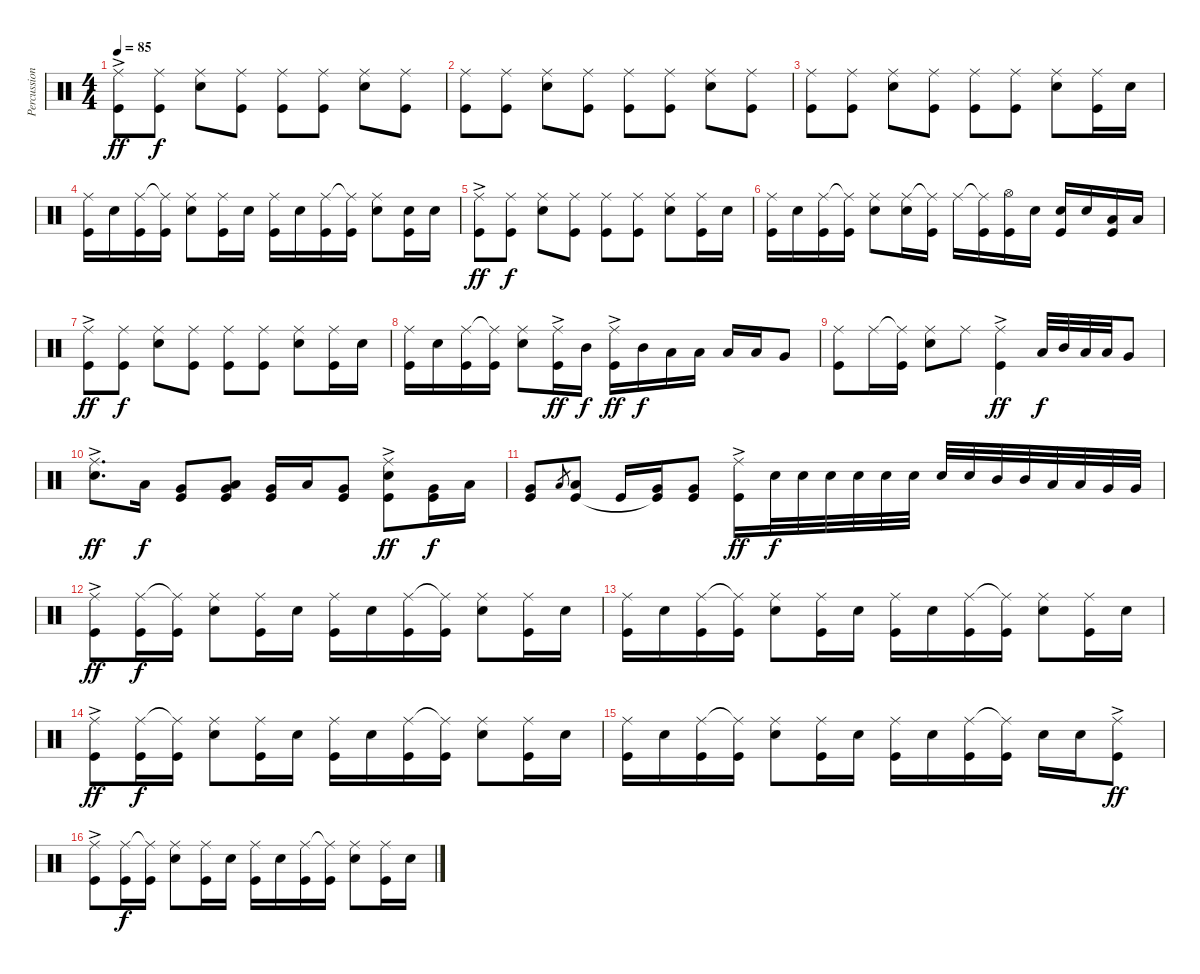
\track ("Percussion" "Percussion") {instrument percussion}
\staff {score}
\articulation defaults
\ts (4 4)
\tempo 85
\clef neutral
\ks c
("Ride (middle)"{ac} "Kick (hit)").8{dy ff} ("Ride (middle)" "Kick (hit)").8{dy f} ("Ride (middle)" "Snare (hit) 2").8 ("Ride (middle)" "Kick (hit)").8 ("Ride (middle)" "Kick (hit)").8 ("Ride (middle)" "Kick (hit)").8 ("Ride (middle)" "Snare (hit) 2").8 ("Ride (middle)" "Kick (hit)").8 |
("Ride (middle)" "Kick (hit)").8 ("Ride (middle)" "Kick (hit)").8 ("Ride (middle)" "Snare (hit) 2").8 ("Ride (middle)" "Kick (hit)").8 ("Ride (middle)" "Kick (hit)").8 ("Ride (middle)" "Kick (hit)").8 ("Ride (middle)" "Snare (hit) 2").8 ("Ride (middle)" "Kick (hit)").8 |
("Ride (middle)" "Kick (hit)").8 ("Ride (middle)" "Kick (hit)").8 ("Ride (middle)" "Snare (hit) 2").8 ("Ride (middle)" "Kick (hit)").8 ("Ride (middle)" "Kick (hit)").8 ("Ride (middle)" "Kick (hit)").8 ("Ride (middle)" "Snare (hit) 2").8 ("Ride (middle)" "Kick (hit)").16 "Snare (hit) 2".16 |
("Ride (middle)" "Kick (hit)").16 "Snare (hit) 2".16 ("Ride (middle)" "Kick (hit)").16 ("Ride (middle)"{t} "Kick (hit)").16 ("Ride (middle)" "Snare (hit) 2").8 ("Ride (middle)" "Kick (hit)").16 "Snare (hit) 2".16 ("Ride (middle)" "Kick (hit)").16 "Snare (hit) 2".16 ("Ride (middle)" "Kick (hit)").16 ("Ride (middle)"{t} "Kick (hit)").16 ("Ride (middle)" "Snare (hit) 2").8 ("Snare (hit) 2" "Kick (hit)").16 "Snare (hit) 2".16 |
("Ride (middle)"{ac} "Kick (hit)").8{dy ff} ("Ride (middle)" "Kick (hit)").8{dy f} ("Ride (middle)" "Snare (hit) 2").8 ("Ride (middle)" "Kick (hit)").8 ("Ride (middle)" "Kick (hit)").8 ("Ride (middle)" "Kick (hit)").8 ("Ride (middle)" "Snare (hit) 2").8 ("Ride (middle)" "Kick (hit)").16 "Snare (hit) 2".16 |
("Ride (middle)" "Kick (hit)").16 "Snare (hit) 2".16 ("Ride (middle)" "Kick (hit)").16 ("Ride (middle)"{t} "Kick (hit)").16 ("Ride (middle)" "Snare (hit) 2").8 ("Ride (middle)" "Snare (hit) 2").16 ("Ride (middle)"{t} "Kick (hit)").16 "Ride (middle)".16 ("Ride (middle)"{t} "Kick (hit)").16 ("Hi-Hat (open)" "Kick (hit)").16 "Snare (hit) 2".16 ("Snare (hit) 2" "Kick (hit)").16 "Snare (hit) 2".16 ("Low Tom (hit)" "Kick (hit)").16 "Low Tom (hit)".16 |
("Ride (middle)"{ac} "Kick (hit)").8{dy ff} ("Ride (middle)" "Kick (hit)").8{dy f} ("Ride (middle)" "Snare (hit) 2").8 ("Ride (middle)" "Kick (hit)").8 ("Ride (middle)" "Kick (hit)").8 ("Ride (middle)" "Kick (hit)").8 ("Ride (middle)" "Snare (hit) 2").8 ("Ride (middle)" "Kick (hit)").16 "Snare (hit) 2".16 |
("Ride (middle)" "Kick (hit)").16 "Snare (hit) 2".16 ("Ride (middle)" "Kick (hit)").16 ("Ride (middle)"{t} "Kick (hit)").16 ("Ride (middle)" "Snare (hit) 2").8 ("Ride (middle)"{ac} "Kick (hit)").16{dy ff} "Mid Tom (hit)".16{dy f} ("Ride (middle)"{ac} "Kick (hit)").16{dy ff} "Mid Tom (hit)".16{dy f} "Low Tom (hit)".16 "Low Tom (hit)".16 "Low Tom (hit)".16 "Low Tom (hit)".16 "Very Low Tom (hit)".8 |
("Ride (middle)" "Kick (hit)").8 "Ride (middle)".16 ("Ride (middle)"{t} "Kick (hit)").16 ("Ride (middle)" "Snare (hit) 2").8 "Ride (middle)".8 ("Ride (middle)"{ac} "Kick (hit)").4{dy ff} "Low Tom (hit)".32{dy f} "Mid Tom (hit)".32 "Low Tom (hit)".32 "Low Tom (hit)".32 "Very Low Tom (hit)".8 |
("Ride (middle)"{ac} "Snare (hit) 2").8{d dy ff} "Low Tom (hit)".16{dy f} ("Very Low Tom (hit)" "Kick (hit)").8 ("Very Low Tom (hit)" "Low Tom (hit)" "Kick (hit)").8 ("Very Low Tom (hit)" "Kick (hit)").16 "Low Tom (hit)".16 ("Very Low Tom (hit)" "Kick (hit)").8 ("Ride (middle)"{ac} "Snare (hit) 2" "Kick (hit)").8{dy ff} ("Very Low Tom (hit)" "Kick (hit)").16{dy f} "Low Tom (hit)".16 |
("Very Low Tom (hit)" "Kick (hit)").8 "Low Tom (hit)".8{gr} ("Low Tom (hit)" "Kick (hit)").8 "Kick (hit)".16 ("Very Low Tom (hit)" "Kick (hit)"{t}).16 ("Very Low Tom (hit)" "Kick (hit)").8 ("Ride (middle)"{ac} "Kick (hit)").16{dy ff} "Snare (hit) 2".32{dy f} "Snare (hit) 2".32 "Snare (hit) 2".32 "Snare (hit) 2".32 "Snare (hit) 2".32 "Snare (hit) 2".32 "Snare (hit) 2".32 "Snare (hit) 2".32 "Mid Tom (hit)".32 "Mid Tom (hit)".32 "Low Tom (hit)".32 "Low Tom (hit)".32 "Very Low Tom (hit)".32 "Very Low Tom (hit)".32 |
("Ride (middle)"{ac} "Kick (hit)").8{dy ff} ("Ride (middle)" "Kick (hit)").16{dy f} ("Ride (middle)"{t} "Kick (hit)").16 ("Ride (middle)" "Snare (hit) 2").8 ("Ride (middle)" "Kick (hit)").16 "Snare (hit) 2".16 ("Ride (middle)" "Kick (hit)").16 "Snare (hit) 2".16 ("Ride (middle)" "Kick (hit)").16 ("Ride (middle)"{t} "Kick (hit)").16 ("Ride (middle)" "Snare (hit) 2").8 ("Ride (middle)" "Kick (hit)").16 "Snare (hit) 2".16 |
("Ride (middle)" "Kick (hit)").16 "Snare (hit) 2".16 ("Ride (middle)" "Kick (hit)").16 ("Ride (middle)"{t} "Kick (hit)").16 ("Ride (middle)" "Snare (hit) 2").8 ("Ride (middle)" "Kick (hit)").16 "Snare (hit) 2".16 ("Ride (middle)" "Kick (hit)").16 "Snare (hit) 2".16 ("Ride (middle)" "Kick (hit)").16 ("Ride (middle)"{t} "Kick (hit)").16 ("Ride (middle)" "Snare (hit) 2").8 ("Ride (middle)" "Kick (hit)").16 "Snare (hit) 2".16 |
("Ride (middle)"{ac} "Kick (hit)").8{dy ff} ("Ride (middle)" "Kick (hit)").16{dy f} ("Ride (middle)"{t} "Kick (hit)").16 ("Ride (middle)" "Snare (hit) 2").8 ("Ride (middle)" "Kick (hit)").16 "Snare (hit) 2".16 ("Ride (middle)" "Kick (hit)").16 "Snare (hit) 2".16 ("Ride (middle)" "Kick (hit)").16 ("Ride (middle)"{t} "Kick (hit)").16 ("Ride (middle)" "Snare (hit) 2").8 ("Ride (middle)" "Kick (hit)").16 "Snare (hit) 2".16 |
("Ride (middle)" "Kick (hit)").16 "Snare (hit) 2".16 ("Ride (middle)" "Kick (hit)").16 ("Ride (middle)"{t} "Kick (hit)").16 ("Ride (middle)" "Snare (hit) 2").8 ("Ride (middle)" "Kick (hit)").16 "Snare (hit) 2".16 ("Ride (middle)" "Kick (hit)").16 "Snare (hit) 2".16 ("Ride (middle)" "Kick (hit)").16 ("Ride (middle)"{t} "Kick (hit)").16 "Snare (hit) 2".16 "Snare (hit) 2".16 ("Ride (middle)"{ac} "Kick (hit)").8{dy ff} |
("Ride (middle)"{ac} "Kick (hit)").8 ("Ride (middle)" "Kick (hit)").16{dy f} ("Ride (middle)"{t} "Kick (hit)").16 ("Ride (middle)" "Snare (hit) 2").8 ("Ride (middle)" "Kick (hit)").16 "Snare (hit) 2".16 ("Ride (middle)" "Kick (hit)").16 "Snare (hit) 2".16 ("Ride (middle)" "Kick (hit)").16 ("Ride (middle)"{t} "Kick (hit)").16 ("Ride (middle)" "Snare (hit) 2").8 ("Ride (middle)" "Kick (hit)").16 "Snare (hit) 2".16
